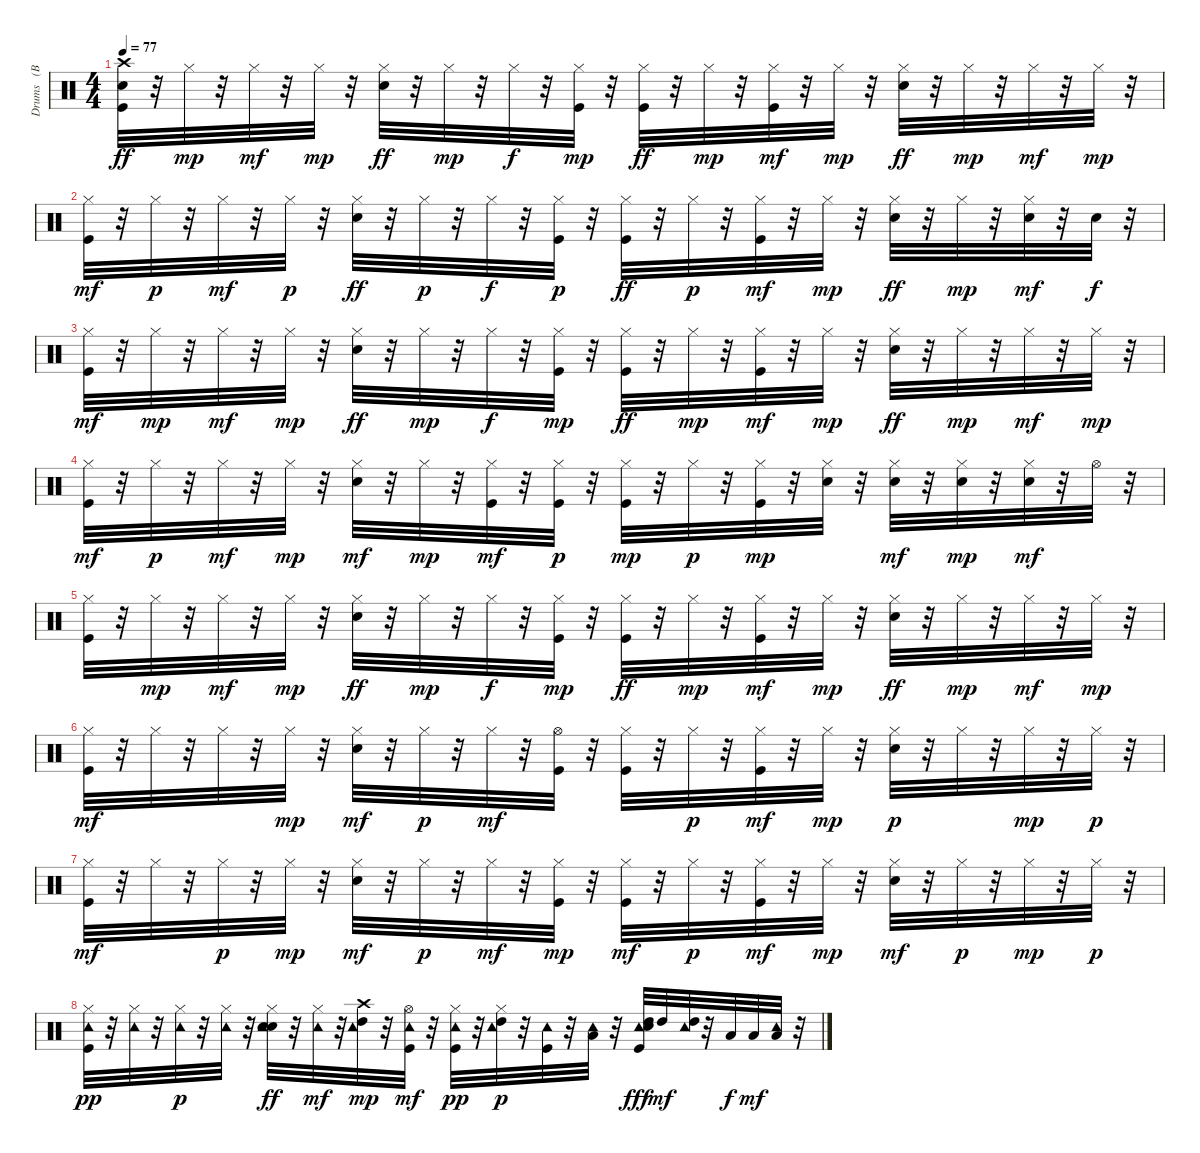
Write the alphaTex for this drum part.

\track ("Drums   (BB)" "Drums   (B") {instrument percussion}
\staff {score}
\articulation defaults
\ts (4 4)
\tempo 77
\clef neutral
\ks c
("Kick (hit)" "Snare (hit) 2" "Crash high (hit)").32{dy ff} r.32 "Hi-Hat (closed)".32{dy mp} r.32 "Hi-Hat (closed)".32{dy mf} r.32 "Hi-Hat (closed)".32{dy mp} r.32 ("Snare (hit) 2" "Hi-Hat (closed)").32{dy ff} r.32 "Hi-Hat (closed)".32{dy mp} r.32 "Hi-Hat (closed)".32{dy f} r.32 ("Kick (hit)" "Hi-Hat (closed)").32{dy mp} r.32 ("Kick (hit)" "Hi-Hat (closed)").32{dy ff} r.32 "Hi-Hat (closed)".32{dy mp} r.32 ("Kick (hit)" "Hi-Hat (closed)").32{dy mf} r.32 "Hi-Hat (closed)".32{dy mp} r.32 ("Snare (hit) 2" "Hi-Hat (closed)").32{dy ff} r.32 "Hi-Hat (closed)".32{dy mp} r.32 "Hi-Hat (closed)".32{dy mf} r.32 "Hi-Hat (closed)".32{dy mp} r.32 |
("Kick (hit)" "Hi-Hat (closed)").32{dy mf} r.32 "Hi-Hat (closed)".32{dy p} r.32 "Hi-Hat (closed)".32{dy mf} r.32 "Hi-Hat (closed)".32{dy p} r.32 ("Snare (hit) 2" "Hi-Hat (closed)").32{dy ff} r.32 "Hi-Hat (closed)".32{dy p} r.32 "Hi-Hat (closed)".32{dy f} r.32 ("Kick (hit)" "Hi-Hat (closed)").32{dy p} r.32 ("Kick (hit)" "Hi-Hat (closed)").32{dy ff} r.32 "Hi-Hat (closed)".32{dy p} r.32 ("Kick (hit)" "Hi-Hat (closed)").32{dy mf} r.32 "Hi-Hat (closed)".32{dy mp} r.32 ("Snare (hit) 2" "Hi-Hat (closed)").32{dy ff} r.32 "Hi-Hat (closed)".32{dy mp} r.32 ("Snare (hit) 2" "Hi-Hat (closed)").32{dy mf} r.32 "Snare (hit) 2".32{dy f} r.32 |
("Kick (hit)" "Hi-Hat (closed)").32{dy mf} r.32 "Hi-Hat (closed)".32{dy mp} r.32 "Hi-Hat (closed)".32{dy mf} r.32 "Hi-Hat (closed)".32{dy mp} r.32 ("Snare (hit) 2" "Hi-Hat (closed)").32{dy ff} r.32 "Hi-Hat (closed)".32{dy mp} r.32 "Hi-Hat (closed)".32{dy f} r.32 ("Kick (hit)" "Hi-Hat (closed)").32{dy mp} r.32 ("Kick (hit)" "Hi-Hat (closed)").32{dy ff} r.32 "Hi-Hat (closed)".32{dy mp} r.32 ("Kick (hit)" "Hi-Hat (closed)").32{dy mf} r.32 "Hi-Hat (closed)".32{dy mp} r.32 ("Snare (hit) 2" "Hi-Hat (closed)").32{dy ff} r.32 "Hi-Hat (closed)".32{dy mp} r.32 "Hi-Hat (closed)".32{dy mf} r.32 "Hi-Hat (closed)".32{dy mp} r.32 |
("Kick (hit)" "Hi-Hat (closed)").32{dy mf} r.32 "Hi-Hat (closed)".32{dy p} r.32 "Hi-Hat (closed)".32{dy mf} r.32 "Hi-Hat (closed)".32{dy mp} r.32 ("Snare (hit) 2" "Hi-Hat (closed)").32{dy mf} r.32 "Hi-Hat (closed)".32{dy mp} r.32 ("Kick (hit)" "Hi-Hat (closed)").32{dy mf} r.32 ("Kick (hit)" "Hi-Hat (closed)").32{dy p} r.32 ("Kick (hit)" "Hi-Hat (closed)").32{dy mp} r.32 "Hi-Hat (closed)".32{dy p} r.32 ("Kick (hit)" "Hi-Hat (closed)").32{dy mp} r.32 ("Snare (hit) 2" "Hi-Hat (closed)").32 r.32 ("Snare (hit) 2" "Hi-Hat (closed)").32{dy mf} r.32 ("Snare (hit) 2" "Hi-Hat (closed)").32{dy mp} r.32 ("Snare (hit) 2" "Hi-Hat (closed)").32{dy mf} r.32 "Hi-Hat (open)".32 r.32 |
("Kick (hit)" "Hi-Hat (closed)").32 r.32 "Hi-Hat (closed)".32{dy mp} r.32 "Hi-Hat (closed)".32{dy mf} r.32 "Hi-Hat (closed)".32{dy mp} r.32 ("Snare (hit) 2" "Hi-Hat (closed)").32{dy ff} r.32 "Hi-Hat (closed)".32{dy mp} r.32 "Hi-Hat (closed)".32{dy f} r.32 ("Kick (hit)" "Hi-Hat (closed)").32{dy mp} r.32 ("Kick (hit)" "Hi-Hat (closed)").32{dy ff} r.32 "Hi-Hat (closed)".32{dy mp} r.32 ("Kick (hit)" "Hi-Hat (closed)").32{dy mf} r.32 "Hi-Hat (closed)".32{dy mp} r.32 ("Snare (hit) 2" "Hi-Hat (closed)").32{dy ff} r.32 "Hi-Hat (closed)".32{dy mp} r.32 "Hi-Hat (closed)".32{dy mf} r.32 "Hi-Hat (closed)".32{dy mp} r.32 |
("Kick (hit)" "Hi-Hat (closed)").32{dy mf} r.32 "Hi-Hat (closed)".32 r.32 "Hi-Hat (closed)".32 r.32 "Hi-Hat (closed)".32{dy mp} r.32 ("Snare (hit) 2" "Hi-Hat (closed)").32{dy mf} r.32 "Hi-Hat (closed)".32{dy p} r.32 "Hi-Hat (closed)".32{dy mf} r.32 ("Kick (hit)" "Hi-Hat (open)").32 r.32 ("Kick (hit)" "Hi-Hat (closed)").32 r.32 "Hi-Hat (closed)".32{dy p} r.32 ("Kick (hit)" "Hi-Hat (closed)").32{dy mf} r.32 "Hi-Hat (closed)".32{dy mp} r.32 ("Snare (hit) 2" "Hi-Hat (closed)").32{dy p} r.32 "Hi-Hat (closed)".32 r.32 "Hi-Hat (closed)".32{dy mp} r.32 "Hi-Hat (closed)".32{dy p} r.32 |
("Kick (hit)" "Hi-Hat (closed)").32{dy mf} r.32 "Hi-Hat (closed)".32 r.32 "Hi-Hat (closed)".32{dy p} r.32 "Hi-Hat (closed)".32{dy mp} r.32 ("Snare (hit) 2" "Hi-Hat (closed)").32{dy mf} r.32 "Hi-Hat (closed)".32{dy p} r.32 "Hi-Hat (closed)".32{dy mf} r.32 ("Kick (hit)" "Hi-Hat (closed)").32{dy mp} r.32 ("Kick (hit)" "Hi-Hat (closed)").32{dy mf} r.32 "Hi-Hat (closed)".32{dy p} r.32 ("Kick (hit)" "Hi-Hat (closed)").32{dy mf} r.32 "Hi-Hat (closed)".32{dy mp} r.32 ("Snare (hit) 2" "Hi-Hat (closed)").32{dy mf} r.32 "Hi-Hat (closed)".32{dy p} r.32 "Hi-Hat (closed)".32{dy mp} r.32 "Hi-Hat (closed)".32{dy p} r.32 |
("Kick (hit)" "Hi-Hat (closed)" "Tambourine (hit)").32{dy pp} r.32 ("Hi-Hat (closed)" "Tambourine (hit)").32 r.32 ("Hi-Hat (closed)" "Tambourine (hit)").32{dy p} r.32 ("Hi-Hat (closed)" "Tambourine (hit)").32 r.32 ("Snare (hit) 2" "Hi-Hat (closed)" "Tambourine (hit)" "Hand Clap (hit)").32{dy ff} r.32 ("Hi-Hat (closed)" "Tambourine (hit)").32{dy mf} r.32 ("Crash high (hit)" "High Tom (hit)" "Tambourine (hit)").32{dy mp} r.32 ("Kick (hit)" "Hi-Hat (open)" "Tambourine (hit)").32{dy mf} r.32 ("Kick (hit)" "Hi-Hat (closed)" "Tambourine (hit)").32{dy pp} r.32 ("Hi-Hat (closed)" "High Tom (hit)" "Tambourine (hit)").32{dy p} r.32 ("Kick (hit)" "Tambourine (hit)").32 r.32 ("Low Tom (hit)" "Tambourine (hit)").32 r.32 ("Kick (hit)" "High Tom (hit)" "Tambourine (hit)" "Hand Clap (hit)").32{dy fff} "High Tom (hit)".32{dy mf} ("High Tom (hit)" "Tambourine (hit)").32 r.32 "Low Tom (hit)".32{dy f} "Low Tom (hit)".32{dy mf} ("Low Tom (hit)" "Tambourine (hit)").32 r.32
